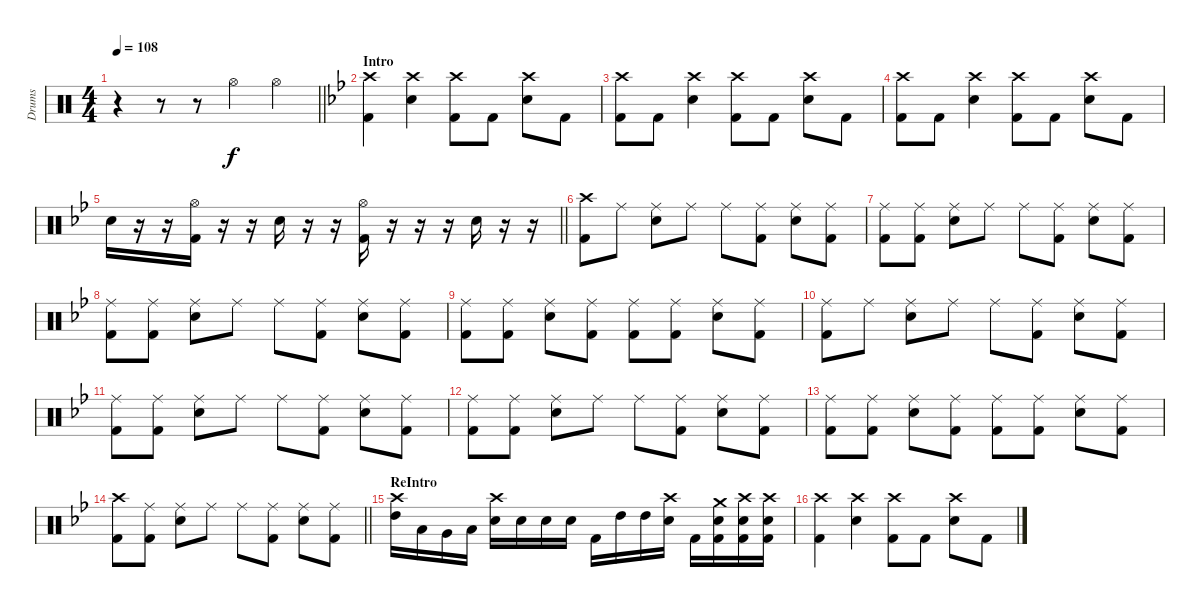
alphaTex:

\track ("Drums" "Drums") {instrument percussion}
\staff {score}
\articulation defaults
\ts (4 4)
\tempo 108
\clef neutral
\barLineRight lightlight
\ks c
r.4{dy f} r.8 r.8 "Hi-Hat (open)".4 "Hi-Hat (open)".4 |
\section ("" "Intro")
\ks bb
("Crash high (hit)" "Kick (hit) 2").4 ("Crash high (hit)" "Electric Snare (hit)").4 ("Crash high (hit)" "Kick (hit) 2").8 "Kick (hit) 2".8 ("Crash high (hit)" "Electric Snare (hit)").8 "Kick (hit) 2".8 |
("Crash high (hit)" "Kick (hit) 2").8 "Kick (hit) 2".8 ("Crash high (hit)" "Electric Snare (hit)").4 ("Crash high (hit)" "Kick (hit) 2").8 "Kick (hit) 2".8 ("Crash high (hit)" "Electric Snare (hit)").8 "Kick (hit) 2".8 |
("Crash high (hit)" "Kick (hit) 2").8 "Kick (hit) 2".8 ("Crash high (hit)" "Electric Snare (hit)").4 ("Crash high (hit)" "Kick (hit) 2").8 "Kick (hit) 2".8 ("Crash high (hit)" "Electric Snare (hit)").8 "Kick (hit) 2".8 |
\barLineRight lightlight "Electric Snare (hit)".16
r.16 r.16 ("Hi-Hat (open)" "Kick (hit) 2").16 r.16 r.16 "Electric Snare (hit)".16 r.16 r.16 ("Hi-Hat (open)" "Kick (hit) 2").16 r.16 r.16 r.16 "Electric Snare (hit)".16 r.16 r.16 |
("Crash high (hit)" "Kick (hit) 2").8 "Ride (middle)".8 ("Ride (middle)" "Electric Snare (hit)").8 "Ride (middle)".8 "Ride (middle)".8 ("Ride (middle)" "Kick (hit) 2").8 ("Ride (middle)" "Electric Snare (hit)").8 ("Ride (middle)" "Kick (hit) 2").8 |
("Ride (middle)" "Kick (hit) 2").8 ("Ride (middle)" "Kick (hit) 2").8 ("Ride (middle)" "Electric Snare (hit)").8 "Ride (middle)".8 "Ride (middle)".8 ("Ride (middle)" "Kick (hit) 2").8 ("Ride (middle)" "Electric Snare (hit)").8 ("Ride (middle)" "Kick (hit) 2").8 |
("Ride (middle)" "Kick (hit) 2").8 ("Ride (middle)" "Kick (hit) 2").8 ("Ride (middle)" "Electric Snare (hit)").8 "Ride (middle)".8 "Ride (middle)".8 ("Ride (middle)" "Kick (hit) 2").8 ("Ride (middle)" "Electric Snare (hit)").8 ("Ride (middle)" "Kick (hit) 2").8 |
("Ride (middle)" "Kick (hit) 2").8 ("Ride (middle)" "Kick (hit) 2").8 ("Ride (middle)" "Electric Snare (hit)").8 ("Ride (middle)" "Kick (hit) 2").8 ("Ride (middle)" "Kick (hit) 2").8 ("Ride (middle)" "Kick (hit) 2").8 ("Ride (middle)" "Electric Snare (hit)").8 ("Ride (middle)" "Kick (hit) 2").8 |
("Ride (middle)" "Kick (hit) 2").8 "Ride (middle)".8 ("Ride (middle)" "Electric Snare (hit)").8 "Ride (middle)".8 "Ride (middle)".8 ("Ride (middle)" "Kick (hit) 2").8 ("Ride (middle)" "Electric Snare (hit)").8 ("Ride (middle)" "Kick (hit) 2").8 |
("Ride (middle)" "Kick (hit) 2").8 ("Ride (middle)" "Kick (hit) 2").8 ("Ride (middle)" "Electric Snare (hit)").8 "Ride (middle)".8 "Ride (middle)".8 ("Ride (middle)" "Kick (hit) 2").8 ("Ride (middle)" "Electric Snare (hit)").8 ("Ride (middle)" "Kick (hit) 2").8 |
("Ride (middle)" "Kick (hit) 2").8 ("Ride (middle)" "Kick (hit) 2").8 ("Ride (middle)" "Electric Snare (hit)").8 "Ride (middle)".8 "Ride (middle)".8 ("Ride (middle)" "Kick (hit) 2").8 ("Ride (middle)" "Electric Snare (hit)").8 ("Ride (middle)" "Kick (hit) 2").8 |
("Ride (middle)" "Kick (hit) 2").8 ("Ride (middle)" "Kick (hit) 2").8 ("Ride (middle)" "Electric Snare (hit)").8 ("Ride (middle)" "Kick (hit) 2").8 ("Ride (middle)" "Kick (hit) 2").8 ("Ride (middle)" "Kick (hit) 2").8 ("Ride (middle)" "Electric Snare (hit)").8 ("Ride (middle)" "Kick (hit) 2").8 |
\barLineRight lightlight
("Crash high (hit)" "Kick (hit) 2").8 ("Ride (middle)" "Kick (hit) 2").8 ("Ride (middle)" "Electric Snare (hit)").8 "Ride (middle)".8 "Ride (middle)".8 ("Ride (middle)" "Kick (hit) 2").8 ("Ride (middle)" "Electric Snare (hit)").8 ("Ride (middle)" "Kick (hit) 2").8 |
\section ("" "ReIntro")
("Crash high (hit)" "High Tom (hit)").16 "Low Tom (hit)".16 "Very Low Tom (hit)".16 "Low Floor Tom (hit)".16 ("Crash high (hit)" "Electric Snare (hit)").16 "Electric Snare (hit)".16 "Electric Snare (hit)".16 "Electric Snare (hit)".16 "Kick (hit) 2".16 "High Tom (hit)".16 "High Tom (hit)".16 ("Crash high (hit)" "Electric Snare (hit)").16 "Kick (hit) 2".16 ("Crash medium (hit)" "Electric Snare (hit)" "Kick (hit) 2").16 ("Crash high (hit)" "Electric Snare (hit)" "Kick (hit) 2").16 ("Crash high (hit)" "Electric Snare (hit)" "Kick (hit) 2").16 |
("Crash high (hit)" "Kick (hit) 2").4 ("Crash high (hit)" "Electric Snare (hit)").4 ("Crash high (hit)" "Kick (hit) 2").8 "Kick (hit) 2".8 ("Crash high (hit)" "Electric Snare (hit)").8 "Kick (hit) 2".8
